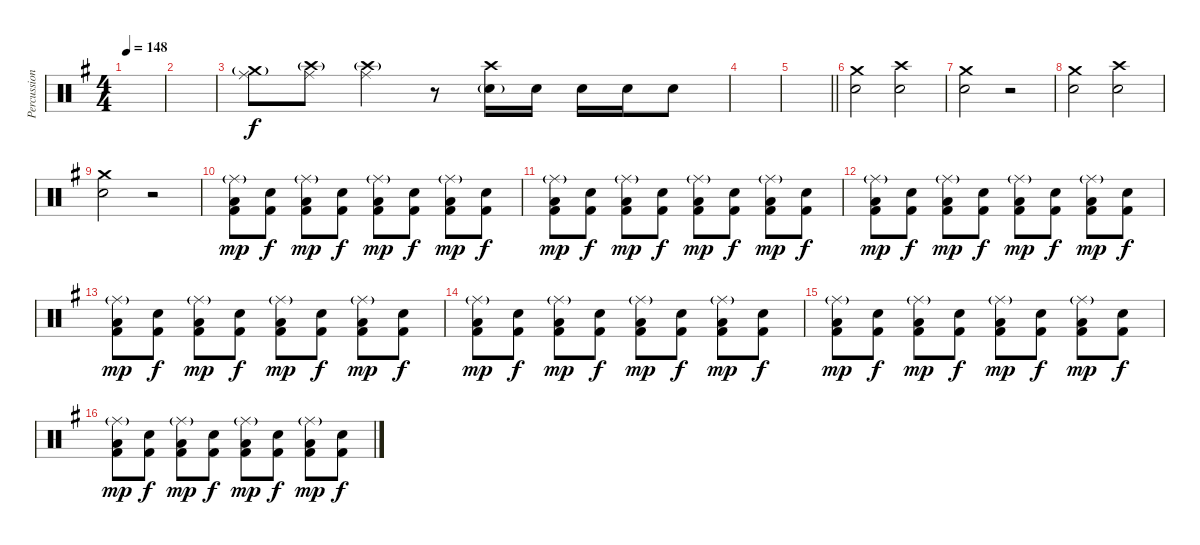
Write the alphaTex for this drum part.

\track ("Percussions" "Percussion") {instrument percussion}
\staff {score}
\articulation defaults
\ts (4 4)
\tempo 148
\clef neutral
\ks g
|
|
("Crash medium (hit)"{g} "Ride (middle)").8 ("Crash high (hit)"{g} "Ride (middle)").8 ("Crash high (hit)"{g} "Ride (middle)").4 r.8 ("Crash high (hit)" "Electric Snare (hit)"{g}).16 "Electric Snare (hit)".16{dy f} "Electric Snare (hit)".16 "Electric Snare (hit)".16 "Electric Snare (hit)".8 |
|
\barLineRight lightlight
|
("Crash medium (hit)" "Electric Snare (hit)").2 ("Crash high (hit)" "Electric Snare (hit)").2 |
("Crash medium (hit)" "Electric Snare (hit)").2 r.2 |
("Crash medium (hit)" "Electric Snare (hit)").2 ("Crash high (hit)" "Electric Snare (hit)").2 |
("Crash medium (hit)" "Electric Snare (hit)").2 r.2 |
("Ride (middle)"{g} "Low Floor Tom (hit)" "Kick (hit) 2").8{dy mp} ("Electric Snare (hit)" "Kick (hit) 2").8{dy f} ("Ride (middle)"{g} "Low Floor Tom (hit)" "Kick (hit) 2").8{dy mp} ("Electric Snare (hit)" "Kick (hit) 2").8{dy f} ("Ride (middle)"{g} "Low Floor Tom (hit)" "Kick (hit) 2").8{dy mp} ("Electric Snare (hit)" "Kick (hit) 2").8{dy f} ("Ride (middle)"{g} "Low Floor Tom (hit)" "Kick (hit) 2").8{dy mp} ("Electric Snare (hit)" "Kick (hit) 2").8{dy f} |
("Ride (middle)"{g} "Low Floor Tom (hit)" "Kick (hit) 2").8{dy mp} ("Electric Snare (hit)" "Kick (hit) 2").8{dy f} ("Ride (middle)"{g} "Low Floor Tom (hit)" "Kick (hit) 2").8{dy mp} ("Electric Snare (hit)" "Kick (hit) 2").8{dy f} ("Ride (middle)"{g} "Low Floor Tom (hit)" "Kick (hit) 2").8{dy mp} ("Electric Snare (hit)" "Kick (hit) 2").8{dy f} ("Ride (middle)"{g} "Low Floor Tom (hit)" "Kick (hit) 2").8{dy mp} ("Electric Snare (hit)" "Kick (hit) 2").8{dy f} |
("Ride (middle)"{g} "Low Floor Tom (hit)" "Kick (hit) 2").8{dy mp} ("Electric Snare (hit)" "Kick (hit) 2").8{dy f} ("Ride (middle)"{g} "Low Floor Tom (hit)" "Kick (hit) 2").8{dy mp} ("Electric Snare (hit)" "Kick (hit) 2").8{dy f} ("Ride (middle)"{g} "Low Floor Tom (hit)" "Kick (hit) 2").8{dy mp} ("Electric Snare (hit)" "Kick (hit) 2").8{dy f} ("Ride (middle)"{g} "Low Floor Tom (hit)" "Kick (hit) 2").8{dy mp} ("Electric Snare (hit)" "Kick (hit) 2").8{dy f} |
("Ride (middle)"{g} "Low Floor Tom (hit)" "Kick (hit) 2").8{dy mp} ("Electric Snare (hit)" "Kick (hit) 2").8{dy f} ("Ride (middle)"{g} "Low Floor Tom (hit)" "Kick (hit) 2").8{dy mp} ("Electric Snare (hit)" "Kick (hit) 2").8{dy f} ("Ride (middle)"{g} "Low Floor Tom (hit)" "Kick (hit) 2").8{dy mp} ("Electric Snare (hit)" "Kick (hit) 2").8{dy f} ("Ride (middle)"{g} "Low Floor Tom (hit)" "Kick (hit) 2").8{dy mp} ("Electric Snare (hit)" "Kick (hit) 2").8{dy f} |
("Ride (middle)"{g} "Low Floor Tom (hit)" "Kick (hit) 2").8{dy mp} ("Electric Snare (hit)" "Kick (hit) 2").8{dy f} ("Ride (middle)"{g} "Low Floor Tom (hit)" "Kick (hit) 2").8{dy mp} ("Electric Snare (hit)" "Kick (hit) 2").8{dy f} ("Ride (middle)"{g} "Low Floor Tom (hit)" "Kick (hit) 2").8{dy mp} ("Electric Snare (hit)" "Kick (hit) 2").8{dy f} ("Ride (middle)"{g} "Low Floor Tom (hit)" "Kick (hit) 2").8{dy mp} ("Electric Snare (hit)" "Kick (hit) 2").8{dy f} |
("Ride (middle)"{g} "Low Floor Tom (hit)" "Kick (hit) 2").8{dy mp} ("Electric Snare (hit)" "Kick (hit) 2").8{dy f} ("Ride (middle)"{g} "Low Floor Tom (hit)" "Kick (hit) 2").8{dy mp} ("Electric Snare (hit)" "Kick (hit) 2").8{dy f} ("Ride (middle)"{g} "Low Floor Tom (hit)" "Kick (hit) 2").8{dy mp} ("Electric Snare (hit)" "Kick (hit) 2").8{dy f} ("Ride (middle)"{g} "Low Floor Tom (hit)" "Kick (hit) 2").8{dy mp} ("Electric Snare (hit)" "Kick (hit) 2").8{dy f} |
("Ride (middle)"{g} "Low Floor Tom (hit)" "Kick (hit) 2").8{dy mp} ("Electric Snare (hit)" "Kick (hit) 2").8{dy f} ("Ride (middle)"{g} "Low Floor Tom (hit)" "Kick (hit) 2").8{dy mp} ("Electric Snare (hit)" "Kick (hit) 2").8{dy f} ("Ride (middle)"{g} "Low Floor Tom (hit)" "Kick (hit) 2").8{dy mp} ("Electric Snare (hit)" "Kick (hit) 2").8{dy f} ("Ride (middle)"{g} "Low Floor Tom (hit)" "Kick (hit) 2").8{dy mp} ("Electric Snare (hit)" "Kick (hit) 2").8{dy f}
